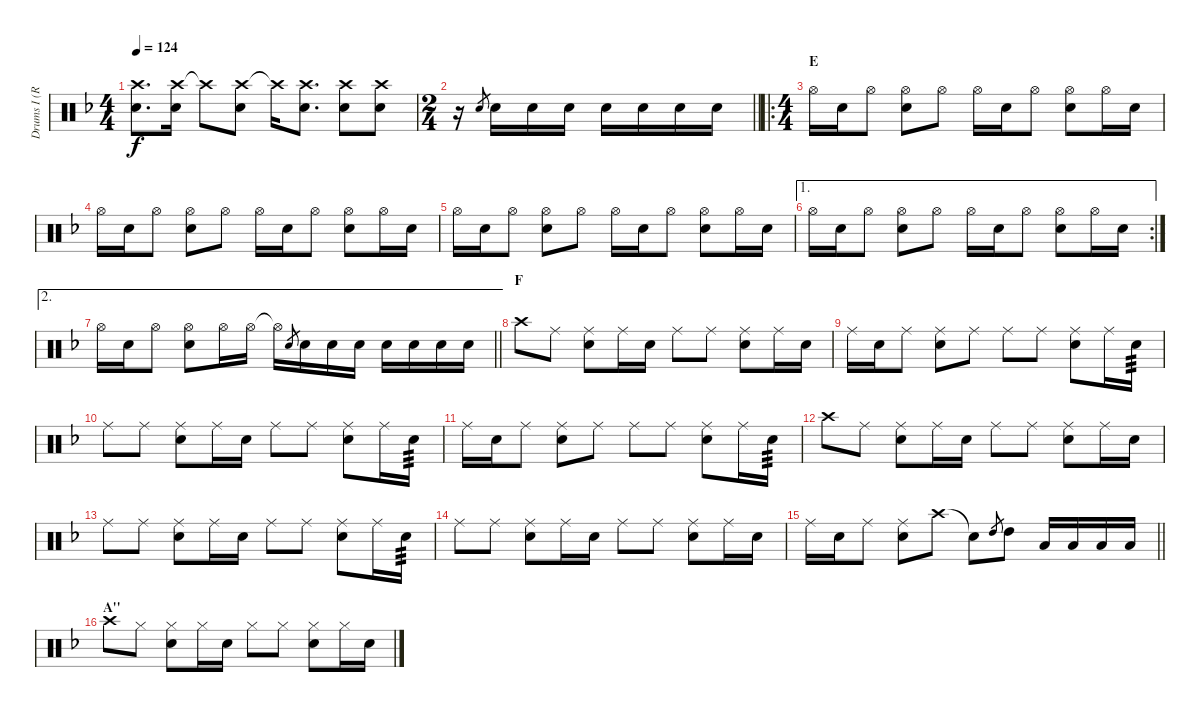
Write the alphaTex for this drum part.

\track ("Drums I (RUKA)" "Drums I (R") {instrument percussion}
\staff {score}
\articulation defaults
\ts (4 4)
\tempo 124
\clef neutral
\ks f
("Crash high (hit)" "Snare (hit) 2").8{d dy f} ("Crash high (hit)" "Snare (hit) 2").16 "Crash high (hit)"{t}.8 ("Crash high (hit)" "Snare (hit) 2").8 "Crash high (hit)"{t}.16 ("Crash high (hit)" "Snare (hit) 2").8{d} ("Crash high (hit)" "Snare (hit) 2").8 ("Crash high (hit)" "Snare (hit) 2").8 |
\ts (2 4)
\barLineRight lightlight
r.16 "Snare (hit) 2".8{gr} "Snare (hit) 2".16 "Snare (hit) 2".16 "Snare (hit) 2".16 "Snare (hit) 2".16 "Snare (hit) 2".16 "Snare (hit) 2".16 "Snare (hit) 2".16 |
\ro
\ts (4 4)
\section ("" "E")
"Hi-Hat (open)".16 "Snare (hit) 2".16 "Hi-Hat (open)".8 ("Hi-Hat (open)" "Snare (hit) 2").8 "Hi-Hat (open)".8 "Hi-Hat (open)".16 "Snare (hit) 2".16 "Hi-Hat (open)".8 ("Hi-Hat (open)" "Snare (hit) 2").8 "Hi-Hat (open)".16 "Snare (hit) 2".16 |
"Hi-Hat (open)".16 "Snare (hit) 2".16 "Hi-Hat (open)".8 ("Hi-Hat (open)" "Snare (hit) 2").8 "Hi-Hat (open)".8 "Hi-Hat (open)".16 "Snare (hit) 2".16 "Hi-Hat (open)".8 ("Hi-Hat (open)" "Snare (hit) 2").8 "Hi-Hat (open)".16 "Snare (hit) 2".16 |
"Hi-Hat (open)".16 "Snare (hit) 2".16 "Hi-Hat (open)".8 ("Hi-Hat (open)" "Snare (hit) 2").8 "Hi-Hat (open)".8 "Hi-Hat (open)".16 "Snare (hit) 2".16 "Hi-Hat (open)".8 ("Hi-Hat (open)" "Snare (hit) 2").8 "Hi-Hat (open)".16 "Snare (hit) 2".16 |
\ae 1
\rc 2 "Hi-Hat (open)".16 "Snare (hit) 2".16 "Hi-Hat (open)".8
("Hi-Hat (open)" "Snare (hit) 2").8 "Hi-Hat (open)".8 "Hi-Hat (open)".16 "Snare (hit) 2".16 "Hi-Hat (open)".8 ("Hi-Hat (open)" "Snare (hit) 2").8 "Hi-Hat (open)".16 "Snare (hit) 2".16 |
\ae 2
\barLineRight lightlight "Hi-Hat (open)".16 "Snare (hit) 2".16 "Hi-Hat (open)".8
("Hi-Hat (open)" "Snare (hit) 2").8 "Hi-Hat (open)".16 "Hi-Hat (open)".16 "Hi-Hat (open)"{t}.16 "Snare (hit) 2".8{gr} "Snare (hit) 2".16 "Snare (hit) 2".16 "Snare (hit) 2".16 "Snare (hit) 2".16 "Snare (hit) 2".16 "Snare (hit) 2".16 "Snare (hit) 2".16 |
\section ("" "F")
"Crash high (hit)".8 "Ride (middle)".8 ("Ride (middle)" "Snare (hit) 2").8 "Ride (middle)".16 "Snare (hit) 2".16 "Ride (middle)".8 "Ride (middle)".8 ("Ride (middle)" "Snare (hit) 2").8 "Ride (middle)".16 "Snare (hit) 2".16 |
"Ride (middle)".16 "Snare (hit) 2".16 "Ride (middle)".8 ("Ride (middle)" "Snare (hit) 2").8 "Ride (middle)".8 "Ride (middle)".8 "Ride (middle)".8 ("Ride (middle)" "Snare (hit) 2").8 "Ride (middle)".16 "Snare (hit) 2".16{tp 3} |
"Ride (middle)".8 "Ride (middle)".8 ("Ride (middle)" "Snare (hit) 2").8 "Ride (middle)".16 "Snare (hit) 2".16 "Ride (middle)".8 "Ride (middle)".8 ("Ride (middle)" "Snare (hit) 2").8 "Ride (middle)".16 "Snare (hit) 2".16{tp 3} |
"Ride (middle)".16 "Snare (hit) 2".16 "Ride (middle)".8 ("Ride (middle)" "Snare (hit) 2").8 "Ride (middle)".8 "Ride (middle)".8 "Ride (middle)".8 ("Ride (middle)" "Snare (hit) 2").8 "Ride (middle)".16 "Snare (hit) 2".16{tp 3} |
"Crash high (hit)".8 "Ride (middle)".8 ("Ride (middle)" "Snare (hit) 2").8 "Ride (middle)".16 "Snare (hit) 2".16 "Ride (middle)".8 "Ride (middle)".8 ("Ride (middle)" "Snare (hit) 2").8 "Ride (middle)".16 "Snare (hit) 2".16 |
"Ride (middle)".8 "Ride (middle)".8 ("Ride (middle)" "Snare (hit) 2").8 "Ride (middle)".16 "Snare (hit) 2".16 "Ride (middle)".8 "Ride (middle)".8 ("Ride (middle)" "Snare (hit) 2").8 "Ride (middle)".16 "Snare (hit) 2".16{tp 3} |
"Ride (middle)".8 "Ride (middle)".8 ("Ride (middle)" "Snare (hit) 2").8 "Ride (middle)".16 "Snare (hit) 2".16 "Ride (middle)".8 "Ride (middle)".8 ("Ride (middle)" "Snare (hit) 2").8 "Ride (middle)".16 "Snare (hit) 2".16 |
\barLineRight lightlight "Ride (middle)".16 "Snare (hit) 2".16 "Ride (middle)".8
("Ride (middle)" "Snare (hit) 2").8 "Crash high (hit)".8 "Snare (hit)"{t}.8 "High Tom (hit)".8{gr} "High Tom (hit)".8 "Low Tom (hit)".16 "Low Tom (hit)".16 "Low Floor Tom (hit)".16 "Low Floor Tom (hit)".16 |
\section ("" "A''")
"Crash high (hit)".8 "Hi-Hat (closed)".8 ("Hi-Hat (closed)" "Snare (hit) 2").8 "Hi-Hat (closed)".16 "Snare (hit) 2".16 "Hi-Hat (closed)".8 "Hi-Hat (closed)".8 ("Hi-Hat (closed)" "Snare (hit) 2").8 "Hi-Hat (closed)".16 "Snare (hit) 2".16
